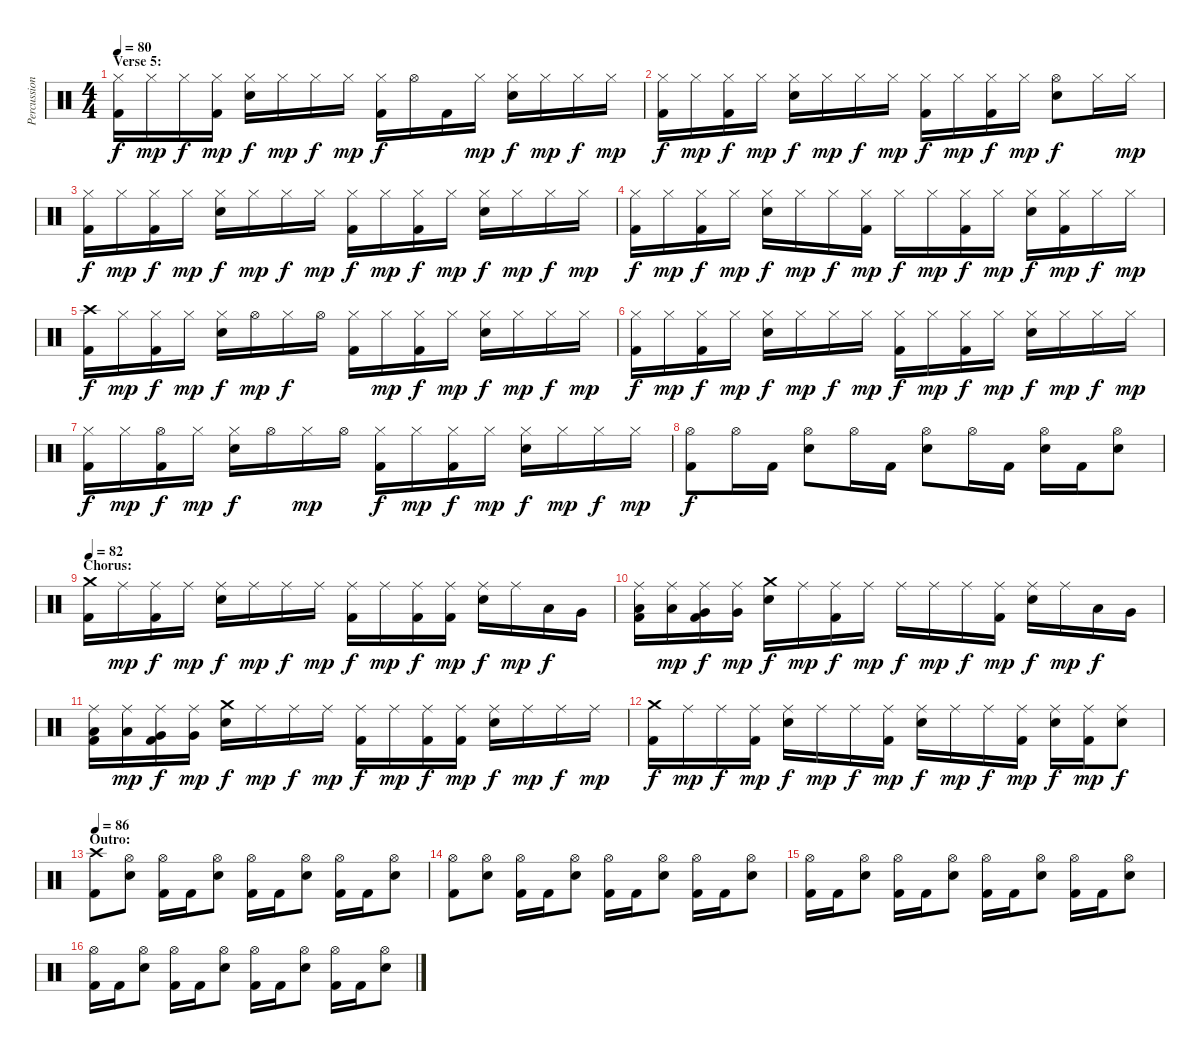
\track ("Percussion" "Percussion") {instrument percussion}
\staff {score}
\articulation defaults
\ts (4 4)
\section ("" "Verse 5:")
\tempo 80
\clef neutral
\ks c
("Hi-Hat (closed)" "Kick (hit) 2").16{dy f} "Hi-Hat (closed)".16{dy mp} "Hi-Hat (closed)".16{dy f} ("Hi-Hat (closed)" "Kick (hit) 2").16{dy mp} ("Hi-Hat (closed)" "Electric Snare (hit)").16{dy f} "Hi-Hat (closed)".16{dy mp} "Hi-Hat (closed)".16{dy f} "Hi-Hat (closed)".16{dy mp} ("Hi-Hat (closed)" "Kick (hit) 2").16{dy f} "Hi-Hat (open)".16 "Kick (hit) 2".16 "Hi-Hat (closed)".16{dy mp} ("Hi-Hat (closed)" "Electric Snare (hit)").16{dy f} "Hi-Hat (closed)".16{dy mp} "Hi-Hat (closed)".16{dy f} "Hi-Hat (closed)".16{dy mp} |
("Hi-Hat (closed)" "Kick (hit) 2").16{dy f} "Hi-Hat (closed)".16{dy mp} ("Hi-Hat (closed)" "Kick (hit) 2").16{dy f} "Hi-Hat (closed)".16{dy mp} ("Hi-Hat (closed)" "Electric Snare (hit)").16{dy f} "Hi-Hat (closed)".16{dy mp} "Hi-Hat (closed)".16{dy f} "Hi-Hat (closed)".16{dy mp} ("Hi-Hat (closed)" "Kick (hit) 2").16{dy f} "Hi-Hat (closed)".16{dy mp} ("Hi-Hat (closed)" "Kick (hit) 2").16{dy f} "Hi-Hat (closed)".16{dy mp} ("Hi-Hat (open)" "Electric Snare (hit)").8{dy f} "Hi-Hat (closed)".16 "Hi-Hat (closed)".16{dy mp} |
("Hi-Hat (closed)" "Kick (hit) 2").16{dy f} "Hi-Hat (closed)".16{dy mp} ("Hi-Hat (closed)" "Kick (hit) 2").16{dy f} "Hi-Hat (closed)".16{dy mp} ("Hi-Hat (closed)" "Electric Snare (hit)").16{dy f} "Hi-Hat (closed)".16{dy mp} "Hi-Hat (closed)".16{dy f} "Hi-Hat (closed)".16{dy mp} ("Hi-Hat (closed)" "Kick (hit) 2").16{dy f} "Hi-Hat (closed)".16{dy mp} ("Hi-Hat (closed)" "Kick (hit) 2").16{dy f} "Hi-Hat (closed)".16{dy mp} ("Hi-Hat (closed)" "Electric Snare (hit)").16{dy f} "Hi-Hat (closed)".16{dy mp} "Hi-Hat (closed)".16{dy f} "Hi-Hat (closed)".16{dy mp} |
("Hi-Hat (closed)" "Kick (hit) 2").16{dy f} "Hi-Hat (closed)".16{dy mp} ("Hi-Hat (closed)" "Kick (hit) 2").16{dy f} "Hi-Hat (closed)".16{dy mp} ("Hi-Hat (closed)" "Electric Snare (hit)").16{dy f} "Hi-Hat (closed)".16{dy mp} "Hi-Hat (closed)".16{dy f} ("Hi-Hat (closed)" "Kick (hit) 2").16{dy mp} "Hi-Hat (closed)".16{dy f} "Hi-Hat (closed)".16{dy mp} ("Hi-Hat (closed)" "Kick (hit) 2").16{dy f} "Hi-Hat (closed)".16{dy mp} ("Hi-Hat (closed)" "Electric Snare (hit)").16{dy f} ("Hi-Hat (closed)" "Kick (hit) 2").16{dy mp} "Hi-Hat (closed)".16{dy f} "Hi-Hat (closed)".16{dy mp} |
("Crash high (hit)" "Kick (hit) 2").16{dy f} "Hi-Hat (closed)".16{dy mp} ("Hi-Hat (closed)" "Kick (hit) 2").16{dy f} "Hi-Hat (closed)".16{dy mp} ("Hi-Hat (closed)" "Electric Snare (hit)").16{dy f} "Hi-Hat (open)".16{dy mp} "Hi-Hat (closed)".16{dy f} "Hi-Hat (open)".16 ("Hi-Hat (closed)" "Kick (hit) 2").16 "Hi-Hat (closed)".16{dy mp} ("Hi-Hat (closed)" "Kick (hit) 2").16{dy f} "Hi-Hat (closed)".16{dy mp} ("Hi-Hat (closed)" "Electric Snare (hit)").16{dy f} "Hi-Hat (closed)".16{dy mp} "Hi-Hat (closed)".16{dy f} "Hi-Hat (closed)".16{dy mp} |
("Hi-Hat (closed)" "Kick (hit) 2").16{dy f} "Hi-Hat (closed)".16{dy mp} ("Hi-Hat (closed)" "Kick (hit) 2").16{dy f} "Hi-Hat (closed)".16{dy mp} ("Hi-Hat (closed)" "Electric Snare (hit)").16{dy f} "Hi-Hat (closed)".16{dy mp} "Hi-Hat (closed)".16{dy f} "Hi-Hat (closed)".16{dy mp} ("Hi-Hat (closed)" "Kick (hit) 2").16{dy f} "Hi-Hat (closed)".16{dy mp} ("Hi-Hat (closed)" "Kick (hit) 2").16{dy f} "Hi-Hat (closed)".16{dy mp} ("Hi-Hat (closed)" "Electric Snare (hit)").16{dy f} "Hi-Hat (closed)".16{dy mp} "Hi-Hat (closed)".16{dy f} "Hi-Hat (closed)".16{dy mp} |
("Hi-Hat (closed)" "Kick (hit) 2").16{dy f} "Hi-Hat (closed)".16{dy mp} ("Hi-Hat (open)" "Kick (hit) 2").16{dy f} "Hi-Hat (closed)".16{dy mp} ("Hi-Hat (closed)" "Electric Snare (hit)").16{dy f} "Hi-Hat (open)".16 "Hi-Hat (closed)".16{dy mp} "Hi-Hat (open)".16 ("Hi-Hat (closed)" "Kick (hit) 2").16{dy f} "Hi-Hat (closed)".16{dy mp} ("Hi-Hat (closed)" "Kick (hit) 2").16{dy f} "Hi-Hat (closed)".16{dy mp} ("Hi-Hat (closed)" "Electric Snare (hit)").16{dy f} "Hi-Hat (closed)".16{dy mp} "Hi-Hat (closed)".16{dy f} "Hi-Hat (closed)".16{dy mp} |
("Hi-Hat (open)" "Kick (hit) 2").8{dy f} "Hi-Hat (open)".16 "Kick (hit) 2".16 ("Hi-Hat (open)" "Electric Snare (hit)").8 "Hi-Hat (open)".16 "Kick (hit) 2".16 ("Hi-Hat (open)" "Electric Snare (hit)").8 "Hi-Hat (open)".16 "Kick (hit) 2".16 ("Hi-Hat (open)" "Electric Snare (hit)").16 "Kick (hit) 2".16 ("Hi-Hat (open)" "Electric Snare (hit)").8 |
\section ("" "Chorus:")
\tempo 82
("Crash medium (hit)" "Kick (hit) 2").16 "Ride (middle)".16{dy mp} ("Ride (middle)" "Kick (hit) 2").16{dy f} "Ride (middle)".16{dy mp} ("Ride (middle)" "Electric Snare (hit)").16{dy f} "Ride (middle)".16{dy mp} "Ride (middle)".16{dy f} "Ride (middle)".16{dy mp} ("Ride (middle)" "Kick (hit) 2").16{dy f} "Ride (middle)".16{dy mp} ("Ride (middle)" "Kick (hit) 2").16{dy f} ("Ride (middle)" "Kick (hit) 2").16{dy mp} ("Ride (middle)" "Electric Snare (hit)").16{dy f} "Ride (middle)".16{dy mp} "Low Tom (hit)".16{dy f} "Very Low Tom (hit)".16 |
("Ride (middle)" "Low Tom (hit)" "Kick (hit) 2").16 ("Ride (middle)" "Low Tom (hit)").16{dy mp} ("Ride (middle)" "Very Low Tom (hit)" "Kick (hit) 2").16{dy f} ("Ride (middle)" "Very Low Tom (hit)").16{dy mp} ("Crash medium (hit)" "Electric Snare (hit)").16{dy f} "Ride (middle)".16{dy mp} ("Ride (middle)" "Kick (hit) 2").16{dy f} "Ride (middle)".16{dy mp} "Ride (middle)".16{dy f} "Ride (middle)".16{dy mp} "Ride (middle)".16{dy f} ("Ride (middle)" "Kick (hit) 2").16{dy mp} ("Ride (middle)" "Electric Snare (hit)").16{dy f} "Ride (middle)".16{dy mp} "Low Tom (hit)".16{dy f} "Very Low Tom (hit)".16 |
("Ride (middle)" "Low Tom (hit)" "Kick (hit) 2").16 ("Ride (middle)" "Low Tom (hit)").16{dy mp} ("Ride (middle)" "Very Low Tom (hit)" "Kick (hit) 2").16{dy f} ("Ride (middle)" "Very Low Tom (hit)").16{dy mp} ("Crash medium (hit)" "Electric Snare (hit)").16{dy f} "Ride (middle)".16{dy mp} "Ride (middle)".16{dy f} "Ride (middle)".16{dy mp} ("Ride (middle)" "Kick (hit) 2").16{dy f} "Ride (middle)".16{dy mp} ("Ride (middle)" "Kick (hit) 2").16{dy f} ("Ride (middle)" "Kick (hit) 2").16{dy mp} ("Ride (middle)" "Electric Snare (hit)").16{dy f} "Ride (middle)".16{dy mp} "Ride (middle)".16{dy f} "Ride (middle)".16{dy mp} |
("Crash medium (hit)" "Kick (hit) 2").16{dy f} "Ride (middle)".16{dy mp} "Ride (middle)".16{dy f} ("Ride (middle)" "Kick (hit) 2").16{dy mp} ("Ride (middle)" "Electric Snare (hit)").16{dy f} "Ride (middle)".16{dy mp} "Ride (middle)".16{dy f} ("Ride (middle)" "Kick (hit) 2").16{dy mp} ("Ride (middle)" "Electric Snare (hit)").16{dy f} "Ride (middle)".16{dy mp} "Ride (middle)".16{dy f} ("Ride (middle)" "Kick (hit) 2").16{dy mp} ("Ride (middle)" "Electric Snare (hit)").16{dy f} ("Ride (middle)" "Kick (hit) 2").16{dy mp} ("Ride (middle)" "Electric Snare (hit)").8{dy f} |
\section ("" "Outro:")
\tempo 86
("Crash high (hit)" "Kick (hit) 2").8 ("Hi-Hat (open)" "Electric Snare (hit)").8 ("Hi-Hat (open)" "Kick (hit) 2").16 "Kick (hit) 2".16 ("Hi-Hat (open)" "Electric Snare (hit)").8 ("Hi-Hat (open)" "Kick (hit) 2").16 "Kick (hit) 2".16 ("Hi-Hat (open)" "Electric Snare (hit)").8 ("Hi-Hat (open)" "Kick (hit) 2").16 "Kick (hit) 2".16 ("Hi-Hat (open)" "Electric Snare (hit)").8 |
("Hi-Hat (open)" "Kick (hit) 2").8 ("Hi-Hat (open)" "Electric Snare (hit)").8 ("Hi-Hat (open)" "Kick (hit) 2").16 "Kick (hit) 2".16 ("Hi-Hat (open)" "Electric Snare (hit)").8 ("Hi-Hat (open)" "Kick (hit) 2").16 "Kick (hit) 2".16 ("Hi-Hat (open)" "Electric Snare (hit)").8 ("Hi-Hat (open)" "Kick (hit) 2").16 "Kick (hit) 2".16 ("Hi-Hat (open)" "Electric Snare (hit)").8 |
("Hi-Hat (open)" "Kick (hit) 2").16 "Kick (hit) 2".16 ("Hi-Hat (open)" "Electric Snare (hit)").8 ("Hi-Hat (open)" "Kick (hit) 2").16 "Kick (hit) 2".16 ("Hi-Hat (open)" "Electric Snare (hit)").8 ("Hi-Hat (open)" "Kick (hit) 2").16 "Kick (hit) 2".16 ("Hi-Hat (open)" "Electric Snare (hit)").8 ("Hi-Hat (open)" "Kick (hit) 2").16 "Kick (hit) 2".16 ("Hi-Hat (open)" "Electric Snare (hit)").8 |
("Hi-Hat (open)" "Kick (hit) 2").16 "Kick (hit) 2".16 ("Hi-Hat (open)" "Electric Snare (hit)").8 ("Hi-Hat (open)" "Kick (hit) 2").16 "Kick (hit) 2".16 ("Hi-Hat (open)" "Electric Snare (hit)").8 ("Hi-Hat (open)" "Kick (hit) 2").16 "Kick (hit) 2".16 ("Hi-Hat (open)" "Electric Snare (hit)").8 ("Hi-Hat (open)" "Kick (hit) 2").16 "Kick (hit) 2".16 ("Hi-Hat (open)" "Electric Snare (hit)").8
